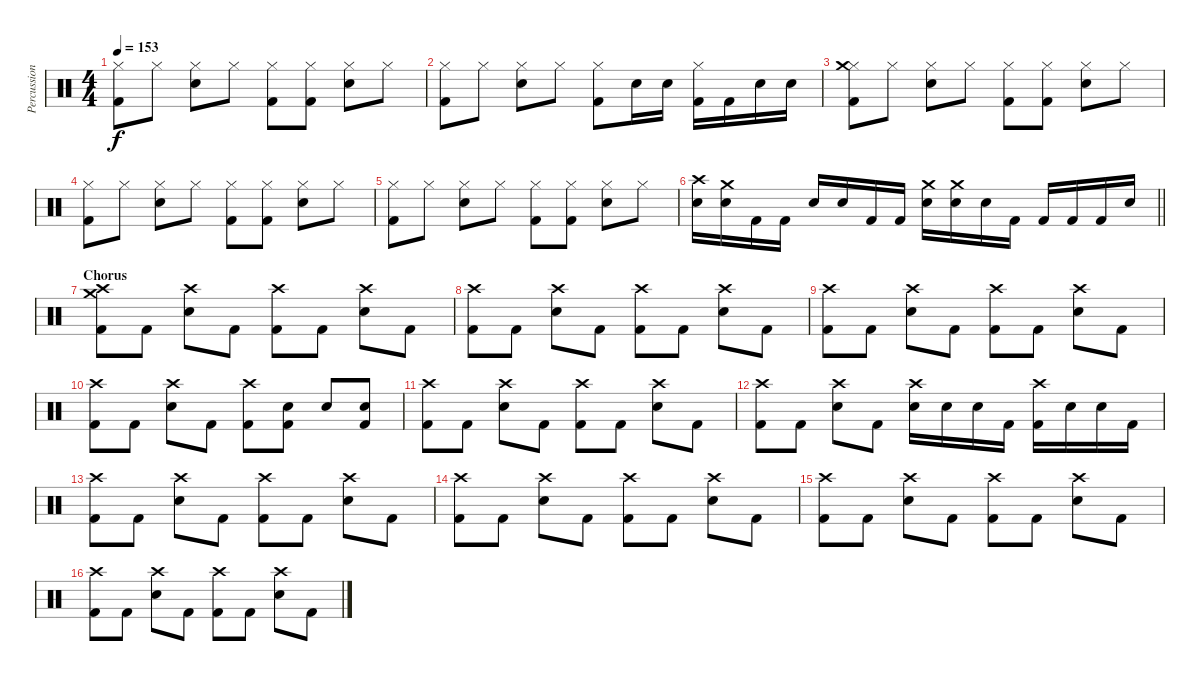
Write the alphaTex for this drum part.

\track ("Percussion" "Percussion") {instrument percussion}
\staff {score}
\articulation defaults
\ts (4 4)
\tempo 153
\clef neutral
\ks c
("Hi-Hat (closed)" "Kick (hit) 2").8{dy f} "Hi-Hat (closed)".8 ("Hi-Hat (closed)" "Snare (hit) 2").8 "Hi-Hat (closed)".8 ("Hi-Hat (closed)" "Kick (hit) 2").8 ("Hi-Hat (closed)" "Kick (hit) 2").8 ("Hi-Hat (closed)" "Snare (hit) 2").8 "Hi-Hat (closed)".8 |
("Hi-Hat (closed)" "Kick (hit) 2").8 "Hi-Hat (closed)".8 ("Hi-Hat (closed)" "Snare (hit) 2").8 "Hi-Hat (closed)".8 ("Hi-Hat (closed)" "Kick (hit) 2").8 "Snare (hit) 2".16 "Snare (hit) 2".16 ("Hi-Hat (closed)" "Kick (hit) 2").16 "Kick (hit) 2".16 "Snare (hit) 2".16 "Snare (hit) 2".16 |
("Hi-Hat (closed)" "Crash medium (hit)" "Kick (hit) 2").8 "Hi-Hat (closed)".8 ("Hi-Hat (closed)" "Snare (hit) 2").8 "Hi-Hat (closed)".8 ("Hi-Hat (closed)" "Kick (hit) 2").8 ("Hi-Hat (closed)" "Kick (hit) 2").8 ("Hi-Hat (closed)" "Snare (hit) 2").8 "Hi-Hat (closed)".8 |
("Hi-Hat (closed)" "Kick (hit) 2").8 "Hi-Hat (closed)".8 ("Hi-Hat (closed)" "Snare (hit) 2").8 "Hi-Hat (closed)".8 ("Hi-Hat (closed)" "Kick (hit) 2").8 ("Hi-Hat (closed)" "Kick (hit) 2").8 ("Hi-Hat (closed)" "Snare (hit) 2").8 "Hi-Hat (closed)".8 |
("Hi-Hat (closed)" "Kick (hit) 2").8 "Hi-Hat (closed)".8 ("Hi-Hat (closed)" "Snare (hit) 2").8 "Hi-Hat (closed)".8 ("Hi-Hat (closed)" "Kick (hit) 2").8 ("Hi-Hat (closed)" "Kick (hit) 2").8 ("Hi-Hat (closed)" "Snare (hit) 2").8 "Hi-Hat (closed)".8 |
\barLineRight lightlight
("Crash high (hit)" "Snare (hit) 2").16 ("Crash medium (hit)" "Snare (hit) 2").16 "Kick (hit) 2".16 "Kick (hit) 2".16 "Snare (hit) 2".16 "Snare (hit) 2".16 "Kick (hit) 2".16 "Kick (hit) 2".16 ("Crash medium (hit)" "Snare (hit) 2").16 ("Crash medium (hit)" "Snare (hit) 2").16 "Snare (hit) 2".16 "Kick (hit) 2".16 "Kick (hit) 2".16 "Kick (hit) 2".16 "Kick (hit) 2".16 "Snare (hit) 2".16 |
\section ("" "Chorus")
("Crash high (hit)" "Crash medium (hit)" "Kick (hit) 2").8 "Kick (hit) 2".8 ("Crash high (hit)" "Snare (hit) 2").8 "Kick (hit) 2".8 ("Crash high (hit)" "Kick (hit) 2").8 "Kick (hit) 2".8 ("Crash high (hit)" "Snare (hit) 2").8 "Kick (hit) 2".8 |
("Crash high (hit)" "Kick (hit) 2").8 "Kick (hit) 2".8 ("Crash high (hit)" "Snare (hit) 2").8 "Kick (hit) 2".8 ("Crash high (hit)" "Kick (hit) 2").8 "Kick (hit) 2".8 ("Crash high (hit)" "Snare (hit) 2").8 "Kick (hit) 2".8 |
("Crash high (hit)" "Kick (hit) 2").8 "Kick (hit) 2".8 ("Crash high (hit)" "Snare (hit) 2").8 "Kick (hit) 2".8 ("Crash high (hit)" "Kick (hit) 2").8 "Kick (hit) 2".8 ("Crash high (hit)" "Snare (hit) 2").8 "Kick (hit) 2".8 |
("Crash high (hit)" "Kick (hit) 2").8 "Kick (hit) 2".8 ("Crash high (hit)" "Snare (hit) 2").8 "Kick (hit) 2".8 ("Crash high (hit)" "Kick (hit) 2").8 ("Snare (hit) 2" "Kick (hit) 2").8 "Snare (hit) 2".8 ("Snare (hit) 2" "Kick (hit) 2").8 |
("Crash high (hit)" "Kick (hit) 2").8 "Kick (hit) 2".8 ("Crash high (hit)" "Snare (hit) 2").8 "Kick (hit) 2".8 ("Crash high (hit)" "Kick (hit) 2").8 "Kick (hit) 2".8 ("Crash high (hit)" "Snare (hit) 2").8 "Kick (hit) 2".8 |
("Crash high (hit)" "Kick (hit) 2").8 "Kick (hit) 2".8 ("Crash high (hit)" "Snare (hit) 2").8 "Kick (hit) 2".8 ("Crash high (hit)" "Snare (hit) 2").16 "Snare (hit) 2".16 "Snare (hit) 2".16 "Kick (hit) 2".16 ("Crash high (hit)" "Kick (hit) 2").16 "Snare (hit) 2".16 "Snare (hit) 2".16 "Kick (hit) 2".16 |
("Crash high (hit)" "Kick (hit) 2").8 "Kick (hit) 2".8 ("Crash high (hit)" "Snare (hit) 2").8 "Kick (hit) 2".8 ("Crash high (hit)" "Kick (hit) 2").8 "Kick (hit) 2".8 ("Crash high (hit)" "Snare (hit) 2").8 "Kick (hit) 2".8 |
("Crash high (hit)" "Kick (hit) 2").8 "Kick (hit) 2".8 ("Crash high (hit)" "Snare (hit) 2").8 "Kick (hit) 2".8 ("Crash high (hit)" "Kick (hit) 2").8 "Kick (hit) 2".8 ("Crash high (hit)" "Snare (hit) 2").8 "Kick (hit) 2".8 |
("Crash high (hit)" "Kick (hit) 2").8 "Kick (hit) 2".8 ("Crash high (hit)" "Snare (hit) 2").8 "Kick (hit) 2".8 ("Crash high (hit)" "Kick (hit) 2").8 "Kick (hit) 2".8 ("Crash high (hit)" "Snare (hit) 2").8 "Kick (hit) 2".8 |
("Crash high (hit)" "Kick (hit) 2").8 "Kick (hit) 2".8 ("Crash high (hit)" "Snare (hit) 2").8 "Kick (hit) 2".8 ("Crash high (hit)" "Kick (hit) 2").8 "Kick (hit) 2".8 ("Crash high (hit)" "Snare (hit) 2").8 "Kick (hit) 2".8
